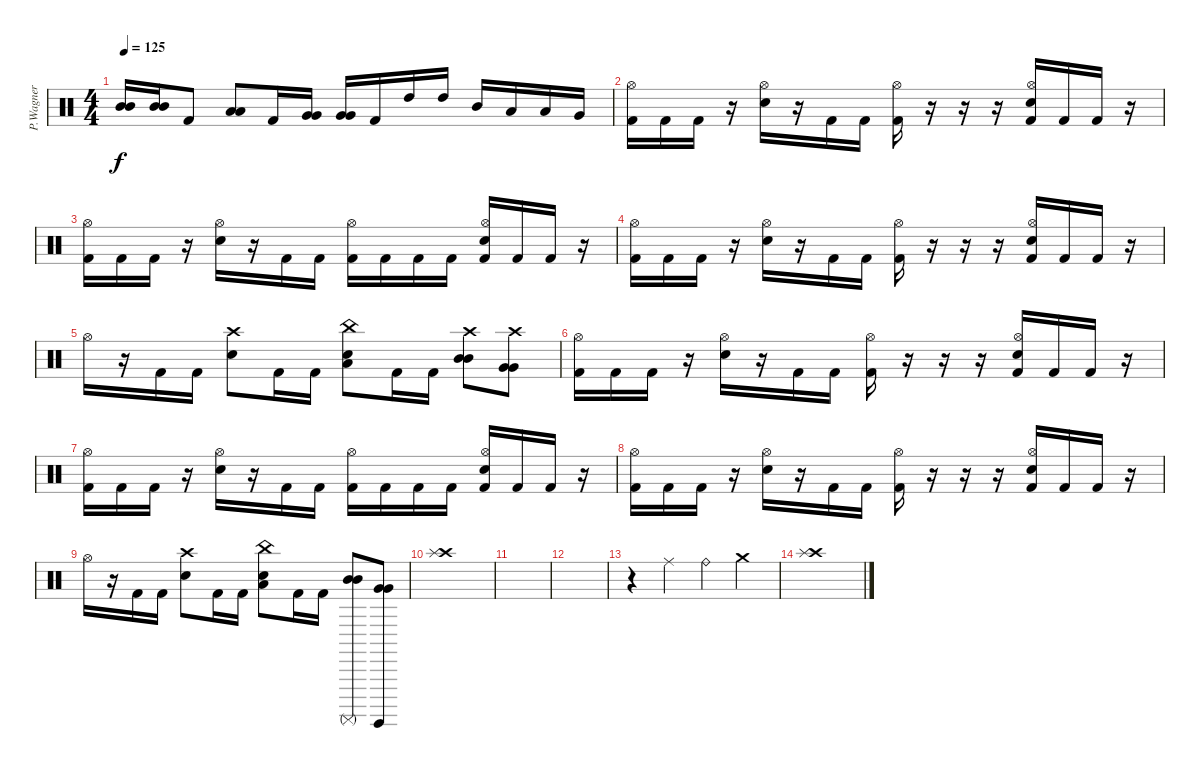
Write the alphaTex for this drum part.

\track ("P.Wagner" "P.Wagner") {instrument percussion}
\staff {score}
\articulation defaults
\ts (4 4)
\tempo 125
\clef neutral
\ks c
("Mid Tom (hit)" "Mid Tom (hit)").16{dy f} ("Mid Tom (hit)" "Mid Tom (hit)").16 "Kick (hit) 2".8 ("Low Tom (hit)" "Low Tom (hit)").8 "Kick (hit) 2".16 ("Very Low Tom (hit)" "Very Low Tom (hit)").16 ("Very Low Tom (hit)" "Very Low Tom (hit)").16 "Kick (hit) 2".16 "High Tom (hit)".16 "High Tom (hit)".16 "Mid Tom (hit)".16 "Low Tom (hit)".16 "Low Tom (hit)".16 "Very Low Tom (hit)".16 |
("Kick (hit) 2" "Hi-Hat (open)").16 "Kick (hit) 2".16 "Kick (hit) 2".16 r.16 ("Electric Snare (hit)" "Hi-Hat (open)").16 r.16 "Kick (hit) 2".16 "Kick (hit) 2".16 ("Kick (hit) 2" "Hi-Hat (open)").16 r.16 r.16 r.16 ("Kick (hit) 2" "Electric Snare (hit)" "Hi-Hat (open)").16 "Kick (hit) 2".16 "Kick (hit) 2".16 r.16 |
("Kick (hit) 2" "Hi-Hat (open)").16 "Kick (hit) 2".16 "Kick (hit) 2".16 r.16 ("Electric Snare (hit)" "Hi-Hat (open)").16 r.16 "Kick (hit) 2".16 "Kick (hit) 2".16 ("Kick (hit) 2" "Hi-Hat (open)").16 "Kick (hit) 2".16 "Kick (hit) 2".16 "Kick (hit) 2".16 ("Kick (hit) 2" "Electric Snare (hit)" "Hi-Hat (open)").16 "Kick (hit) 2".16 "Kick (hit) 2".16 r.16 |
("Kick (hit) 2" "Hi-Hat (open)").16 "Kick (hit) 2".16 "Kick (hit) 2".16 r.16 ("Electric Snare (hit)" "Hi-Hat (open)").16 r.16 "Kick (hit) 2".16 "Kick (hit) 2".16 ("Kick (hit) 2" "Hi-Hat (open)").16 r.16 r.16 r.16 ("Kick (hit) 2" "Electric Snare (hit)" "Hi-Hat (open)").16 "Kick (hit) 2".16 "Kick (hit) 2".16 r.16 |
"Hi-Hat (open)".16 r.16 "Kick (hit) 2".16 "Kick (hit) 2".16 ("Electric Snare (hit)" "Crash high (hit)").8 "Kick (hit) 2".16 "Kick (hit) 2".16 ("Low Tom (hit)" "Electric Snare (hit)" "China (hit)").8 "Kick (hit) 2".16 "Kick (hit) 2".16 ("Mid Tom (hit)" "Mid Tom (hit)" "Crash high (hit)").8 ("Very Low Tom (hit)" "Very Low Tom (hit)" "Crash high (hit)").8 |
("Kick (hit) 2" "Hi-Hat (open)").16 "Kick (hit) 2".16 "Kick (hit) 2".16 r.16 ("Electric Snare (hit)" "Hi-Hat (open)").16 r.16 "Kick (hit) 2".16 "Kick (hit) 2".16 ("Kick (hit) 2" "Hi-Hat (open)").16 r.16 r.16 r.16 ("Kick (hit) 2" "Electric Snare (hit)" "Hi-Hat (open)").16 "Kick (hit) 2".16 "Kick (hit) 2".16 r.16 |
("Kick (hit) 2" "Hi-Hat (open)").16 "Kick (hit) 2".16 "Kick (hit) 2".16 r.16 ("Electric Snare (hit)" "Hi-Hat (open)").16 r.16 "Kick (hit) 2".16 "Kick (hit) 2".16 ("Kick (hit) 2" "Hi-Hat (open)").16 "Kick (hit) 2".16 "Kick (hit) 2".16 "Kick (hit) 2".16 ("Kick (hit) 2" "Electric Snare (hit)" "Hi-Hat (open)").16 "Kick (hit) 2".16 "Kick (hit) 2".16 r.16 |
("Kick (hit) 2" "Hi-Hat (open)").16 "Kick (hit) 2".16 "Kick (hit) 2".16 r.16 ("Electric Snare (hit)" "Hi-Hat (open)").16 r.16 "Kick (hit) 2".16 "Kick (hit) 2".16 ("Kick (hit) 2" "Hi-Hat (open)").16 r.16 r.16 r.16 ("Kick (hit) 2" "Electric Snare (hit)" "Hi-Hat (open)").16 "Kick (hit) 2".16 "Kick (hit) 2".16 r.16 |
"Hi-Hat (open)".16 r.16 "Kick (hit) 2".16 "Kick (hit) 2".16 ("Electric Snare (hit)" "Crash high (hit)").8 "Kick (hit) 2".16 "Kick (hit) 2".16 ("Low Tom (hit)" "Electric Snare (hit)" "China (hit)").8 "Kick (hit) 2".16 "Kick (hit) 2".16 ("Mid Tom (hit)" "Mid Tom (hit)" "Surdo (mute)").8 ("Very Low Tom (hit)" "Very Low Tom (hit)" "Surdo (hit)").8 |
("Crash high (hit)" "Splash (hit)").1 |
|
|
r.4 "Ride (middle)".4 "Ride (bell)".4 "Crash medium (hit)".4 |
("Crash high (hit)" "Splash (hit)").1
